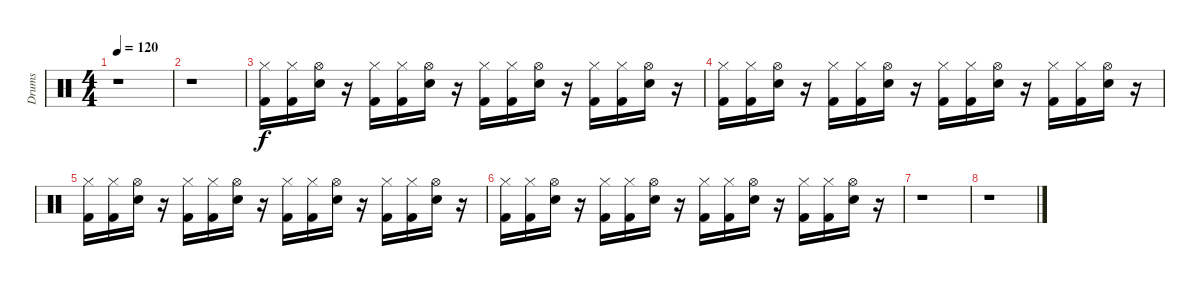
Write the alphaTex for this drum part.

\track ("Drums" "Drums") {instrument percussion}
\staff {score}
\articulation defaults
\ts (4 4)
\tempo 120
\clef neutral
\ks c
r.1{dy f} |
r.1 |
("Hi-Hat (closed)" "Kick (hit) 2").16 ("Hi-Hat (closed)" "Kick (hit) 2").16 ("Hi-Hat (open)" "Snare (hit) 2").16 r.16 ("Hi-Hat (closed)" "Kick (hit) 2").16 ("Hi-Hat (closed)" "Kick (hit) 2").16 ("Hi-Hat (open)" "Snare (hit) 2").16 r.16 ("Hi-Hat (closed)" "Kick (hit) 2").16 ("Hi-Hat (closed)" "Kick (hit) 2").16 ("Hi-Hat (open)" "Snare (hit) 2").16 r.16 ("Hi-Hat (closed)" "Kick (hit) 2").16 ("Hi-Hat (closed)" "Kick (hit) 2").16 ("Hi-Hat (open)" "Snare (hit) 2").16 r.16 |
("Hi-Hat (closed)" "Kick (hit) 2").16 ("Hi-Hat (closed)" "Kick (hit) 2").16 ("Hi-Hat (open)" "Snare (hit) 2").16 r.16 ("Hi-Hat (closed)" "Kick (hit) 2").16 ("Hi-Hat (closed)" "Kick (hit) 2").16 ("Hi-Hat (open)" "Snare (hit) 2").16 r.16 ("Hi-Hat (closed)" "Kick (hit) 2").16 ("Hi-Hat (closed)" "Kick (hit) 2").16 ("Hi-Hat (open)" "Snare (hit) 2").16 r.16 ("Hi-Hat (closed)" "Kick (hit) 2").16 ("Hi-Hat (closed)" "Kick (hit) 2").16 ("Hi-Hat (open)" "Snare (hit) 2").16 r.16 |
("Hi-Hat (closed)" "Kick (hit) 2").16 ("Hi-Hat (closed)" "Kick (hit) 2").16 ("Hi-Hat (open)" "Snare (hit) 2").16 r.16 ("Hi-Hat (closed)" "Kick (hit) 2").16 ("Hi-Hat (closed)" "Kick (hit) 2").16 ("Hi-Hat (open)" "Snare (hit) 2").16 r.16 ("Hi-Hat (closed)" "Kick (hit) 2").16 ("Hi-Hat (closed)" "Kick (hit) 2").16 ("Hi-Hat (open)" "Snare (hit) 2").16 r.16 ("Hi-Hat (closed)" "Kick (hit) 2").16 ("Hi-Hat (closed)" "Kick (hit) 2").16 ("Hi-Hat (open)" "Snare (hit) 2").16 r.16 |
("Hi-Hat (closed)" "Kick (hit) 2").16 ("Hi-Hat (closed)" "Kick (hit) 2").16 ("Hi-Hat (open)" "Snare (hit) 2").16 r.16 ("Hi-Hat (closed)" "Kick (hit) 2").16 ("Hi-Hat (closed)" "Kick (hit) 2").16 ("Hi-Hat (open)" "Snare (hit) 2").16 r.16 ("Hi-Hat (closed)" "Kick (hit) 2").16 ("Hi-Hat (closed)" "Kick (hit) 2").16 ("Hi-Hat (open)" "Snare (hit) 2").16 r.16 ("Hi-Hat (closed)" "Kick (hit) 2").16 ("Hi-Hat (closed)" "Kick (hit) 2").16 ("Hi-Hat (open)" "Snare (hit) 2").16 r.16 |
r.1 |
r.1
